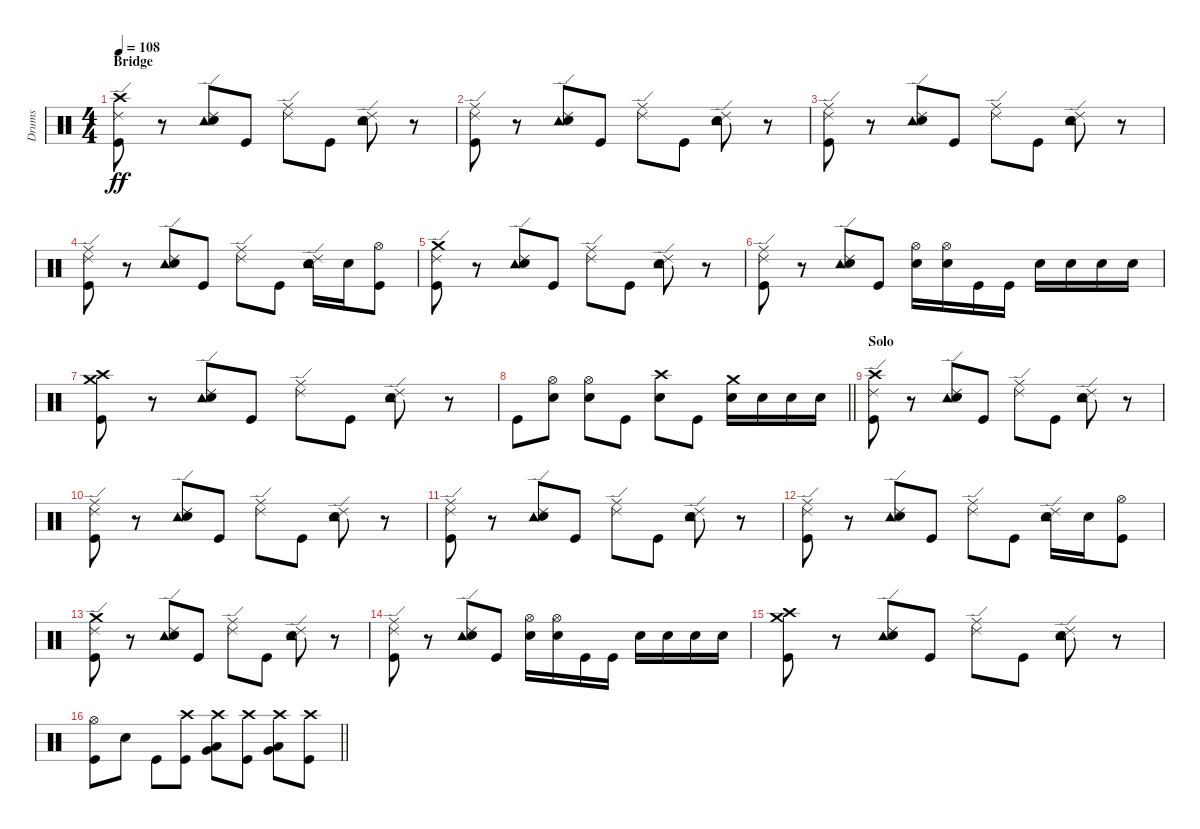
\track ("Drums" "Drums") {instrument percussion}
\staff {score}
\articulation defaults
\ts (4 4)
\section ("" "Bridge")
\tempo 108
\clef neutral
\ks c
("Crash high (hit)" "Ride (edge) 2" "Kick (hit)").8{dy ff} r.8 ("Ride (edge) 2" "Tambourine (hit)" "Electric Snare (hit)").8 "Kick (hit)".8 ("Ride (middle)" "Ride (edge) 2").8 "Kick (hit)".8 ("Ride (edge) 2" "Tambourine (hit)" "Electric Snare (hit)").8 r.8 |
("Ride (middle)" "Ride (edge) 2" "Kick (hit)").8 r.8 ("Ride (edge) 2" "Tambourine (hit)" "Electric Snare (hit)").8 "Kick (hit)".8 ("Ride (middle)" "Ride (edge) 2").8 "Kick (hit)".8 ("Ride (edge) 2" "Tambourine (hit)" "Electric Snare (hit)").8 r.8 |
("Ride (middle)" "Ride (edge) 2" "Kick (hit)").8 r.8 ("Ride (edge) 2" "Tambourine (hit)" "Electric Snare (hit)").8 "Kick (hit)".8 ("Ride (middle)" "Ride (edge) 2").8 "Kick (hit)".8 ("Ride (edge) 2" "Tambourine (hit)" "Electric Snare (hit)").8 r.8 |
("Ride (middle)" "Ride (edge) 2" "Kick (hit)").8 r.8 ("Ride (edge) 2" "Tambourine (hit)" "Electric Snare (hit)").8 "Kick (hit)".8 ("Ride (middle)" "Ride (edge) 2").8 "Kick (hit)".8 ("Ride (edge) 2" "Tambourine (hit)" "Electric Snare (hit)").16 "Electric Snare (hit)".16 ("Hi-Hat (open)" "Kick (hit)").8 |
("Crash medium (hit)" "Ride (edge) 2" "Kick (hit)").8 r.8 ("Ride (edge) 2" "Tambourine (hit)" "Electric Snare (hit)").8 "Kick (hit)".8 ("Ride (middle)" "Ride (edge) 2").8 "Kick (hit)".8 ("Ride (edge) 2" "Tambourine (hit)" "Electric Snare (hit)").8 r.8 |
("Ride (middle)" "Ride (edge) 2" "Kick (hit)").8 r.8 ("Ride (edge) 2" "Tambourine (hit)" "Electric Snare (hit)").8 "Kick (hit)".8 ("Hi-Hat (open)" "Electric Snare (hit)").16 ("Hi-Hat (open)" "Electric Snare (hit)").16 "Kick (hit)".16 "Kick (hit)".16 "Electric Snare (hit)".16 "Electric Snare (hit)".16 "Electric Snare (hit)".16 "Electric Snare (hit)".16 |
("Crash high (hit)" "Crash medium (hit)" "Kick (hit)").8 r.8 ("Ride (edge) 2" "Tambourine (hit)" "Electric Snare (hit)").8 "Kick (hit)".8 ("Ride (middle)" "Ride (edge) 2").8 "Kick (hit)".8 ("Ride (edge) 2" "Tambourine (hit)" "Electric Snare (hit)").8 r.8 |
\barLineRight lightlight "Kick (hit)".8
("Hi-Hat (open)" "Electric Snare (hit)").8 ("Hi-Hat (open)" "Electric Snare (hit)").8 "Kick (hit)".8 ("Crash high (hit)" "Electric Snare (hit)").8 "Kick (hit)".8 ("Crash medium (hit)" "Electric Snare (hit)").16 "Electric Snare (hit)".16 "Electric Snare (hit)".16 "Electric Snare (hit)".16 |
\section ("" "Solo")
("Crash high (hit)" "Ride (edge) 2" "Kick (hit)").8 r.8 ("Ride (edge) 2" "Tambourine (hit)" "Electric Snare (hit)").8 "Kick (hit)".8 ("Ride (middle)" "Ride (edge) 2").8 "Kick (hit)".8 ("Ride (edge) 2" "Tambourine (hit)" "Electric Snare (hit)").8 r.8 |
("Ride (middle)" "Ride (edge) 2" "Kick (hit)").8 r.8 ("Ride (edge) 2" "Tambourine (hit)" "Electric Snare (hit)").8 "Kick (hit)".8 ("Ride (middle)" "Ride (edge) 2").8 "Kick (hit)".8 ("Ride (edge) 2" "Tambourine (hit)" "Electric Snare (hit)").8 r.8 |
("Ride (middle)" "Ride (edge) 2" "Kick (hit)").8 r.8 ("Ride (edge) 2" "Tambourine (hit)" "Electric Snare (hit)").8 "Kick (hit)".8 ("Ride (middle)" "Ride (edge) 2").8 "Kick (hit)".8 ("Ride (edge) 2" "Tambourine (hit)" "Electric Snare (hit)").8 r.8 |
("Ride (middle)" "Ride (edge) 2" "Kick (hit)").8 r.8 ("Ride (edge) 2" "Tambourine (hit)" "Electric Snare (hit)").8 "Kick (hit)".8 ("Ride (middle)" "Ride (edge) 2").8 "Kick (hit)".8 ("Ride (edge) 2" "Tambourine (hit)" "Electric Snare (hit)").16 "Electric Snare (hit)".16 ("Hi-Hat (open)" "Kick (hit)").8 |
("Crash medium (hit)" "Ride (edge) 2" "Kick (hit)").8 r.8 ("Ride (edge) 2" "Tambourine (hit)" "Electric Snare (hit)").8 "Kick (hit)".8 ("Ride (middle)" "Ride (edge) 2").8 "Kick (hit)".8 ("Ride (edge) 2" "Tambourine (hit)" "Electric Snare (hit)").8 r.8 |
("Ride (middle)" "Ride (edge) 2" "Kick (hit)").8 r.8 ("Ride (edge) 2" "Tambourine (hit)" "Electric Snare (hit)").8 "Kick (hit)".8 ("Hi-Hat (open)" "Electric Snare (hit)").16 ("Hi-Hat (open)" "Electric Snare (hit)").16 "Kick (hit)".16 "Kick (hit)".16 "Electric Snare (hit)".16 "Electric Snare (hit)".16 "Electric Snare (hit)".16 "Electric Snare (hit)".16 |
("Crash high (hit)" "Crash medium (hit)" "Kick (hit)").8 r.8 ("Ride (edge) 2" "Tambourine (hit)" "Electric Snare (hit)").8 "Kick (hit)".8 ("Ride (middle)" "Ride (edge) 2").8 "Kick (hit)".8 ("Ride (edge) 2" "Tambourine (hit)" "Electric Snare (hit)").8 r.8 |
\barLineRight lightlight
("Hi-Hat (open)" "Kick (hit)").8 "Electric Snare (hit)".8 "Kick (hit)".8 ("Crash high (hit)" "Kick (hit)").8 ("Crash high (hit)" "Low Tom (hit)" "Very Low Tom (hit)").8 ("Crash high (hit)" "Kick (hit)").8 ("Crash high (hit)" "Very Low Tom (hit)" "Low Floor Tom (hit)").8 ("Crash high (hit)" "Kick (hit)").8
